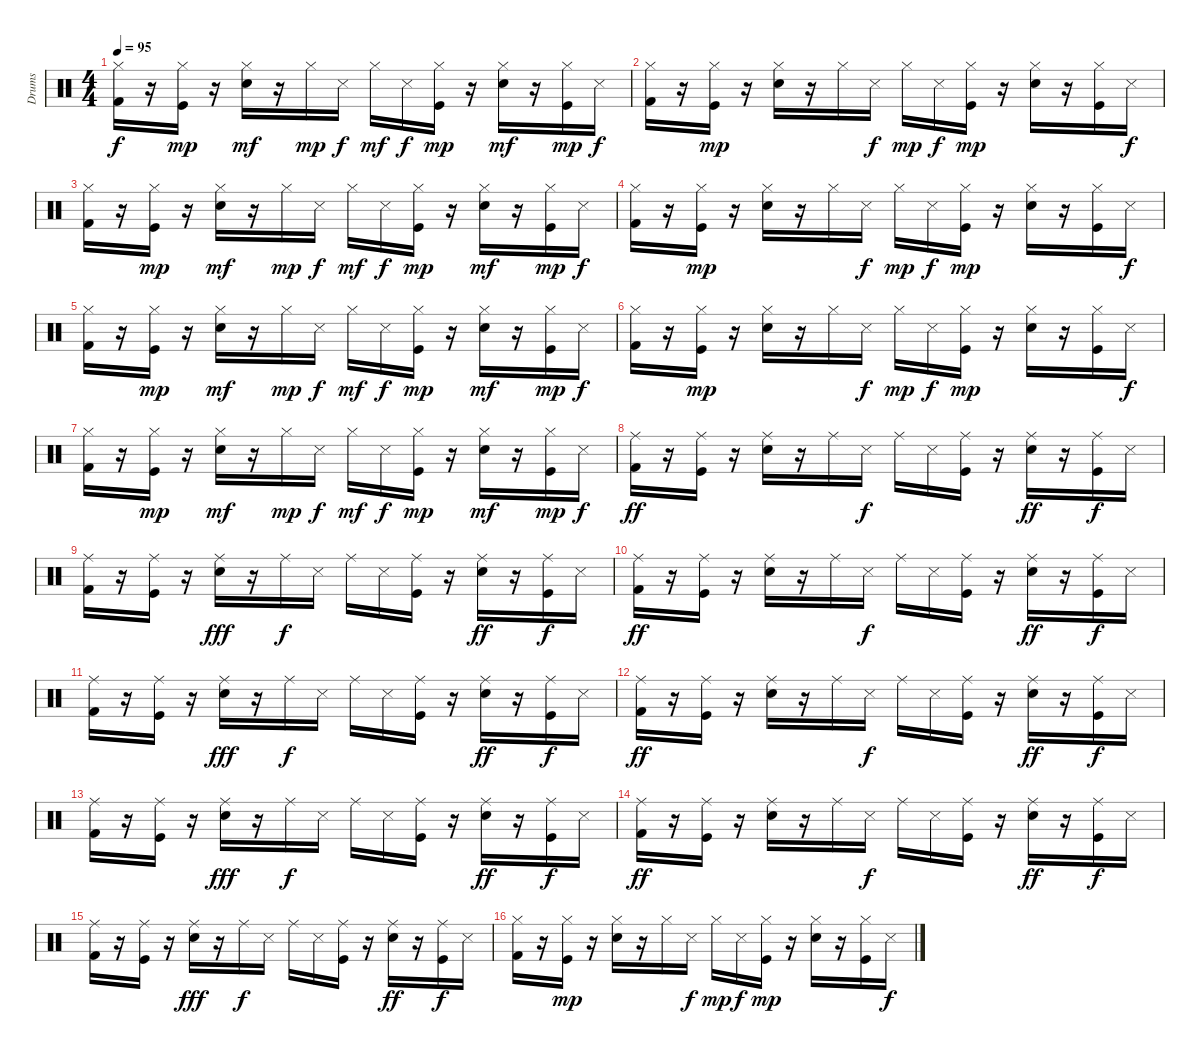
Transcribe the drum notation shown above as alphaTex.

\track ("Drums" "Drums") {instrument percussion}
\staff {score}
\articulation defaults
\ts (4 4)
\tempo 95
\clef neutral
\ks c
("Kick (hit) 2" "Hi-Hat (closed)").16{dy f} r.16 ("Kick (hit)" "Hi-Hat (closed)").16{dy mp} r.16 ("Snare (hit) 2" "Hi-Hat (closed)").16{dy mf} r.16 "Hi-Hat (closed)".16{dy mp} "Snare (side stick) 3".16{dy f} "Hi-Hat (closed)".16{dy mf} "Snare (side stick) 3".16{dy f} ("Kick (hit)" "Hi-Hat (closed)").16{dy mp} r.16 ("Snare (hit) 2" "Hi-Hat (closed)").16{dy mf} r.16 ("Kick (hit)" "Hi-Hat (closed)").16{dy mp} "Snare (side stick) 3".16{dy f} |
("Kick (hit) 2" "Hi-Hat (closed)").16 r.16 ("Kick (hit)" "Hi-Hat (closed)").16{dy mp} r.16 ("Snare (hit) 2" "Hi-Hat (closed)").16 r.16 "Hi-Hat (closed)".16 "Snare (side stick) 3".16{dy f} "Hi-Hat (closed)".16{dy mp} "Snare (side stick) 3".16{dy f} ("Kick (hit)" "Hi-Hat (closed)").16{dy mp} r.16 ("Snare (hit) 2" "Hi-Hat (closed)").16 r.16 ("Kick (hit)" "Hi-Hat (closed)").16 "Snare (side stick) 3".16{dy f} |
("Kick (hit) 2" "Hi-Hat (closed)").16 r.16 ("Kick (hit)" "Hi-Hat (closed)").16{dy mp} r.16 ("Snare (hit) 2" "Hi-Hat (closed)").16{dy mf} r.16 "Hi-Hat (closed)".16{dy mp} "Snare (side stick) 3".16{dy f} "Hi-Hat (closed)".16{dy mf} "Snare (side stick) 3".16{dy f} ("Kick (hit)" "Hi-Hat (closed)").16{dy mp} r.16 ("Snare (hit) 2" "Hi-Hat (closed)").16{dy mf} r.16 ("Kick (hit)" "Hi-Hat (closed)").16{dy mp} "Snare (side stick) 3".16{dy f} |
("Kick (hit) 2" "Hi-Hat (closed)").16 r.16 ("Kick (hit)" "Hi-Hat (closed)").16{dy mp} r.16 ("Snare (hit) 2" "Hi-Hat (closed)").16 r.16 "Hi-Hat (closed)".16 "Snare (side stick) 3".16{dy f} "Hi-Hat (closed)".16{dy mp} "Snare (side stick) 3".16{dy f} ("Kick (hit)" "Hi-Hat (closed)").16{dy mp} r.16 ("Snare (hit) 2" "Hi-Hat (closed)").16 r.16 ("Kick (hit)" "Hi-Hat (closed)").16 "Snare (side stick) 3".16{dy f} |
("Kick (hit) 2" "Hi-Hat (closed)").16 r.16 ("Kick (hit)" "Hi-Hat (closed)").16{dy mp} r.16 ("Snare (hit) 2" "Hi-Hat (closed)").16{dy mf} r.16 "Hi-Hat (closed)".16{dy mp} "Snare (side stick) 3".16{dy f} "Hi-Hat (closed)".16{dy mf} "Snare (side stick) 3".16{dy f} ("Kick (hit)" "Hi-Hat (closed)").16{dy mp} r.16 ("Snare (hit) 2" "Hi-Hat (closed)").16{dy mf} r.16 ("Kick (hit)" "Hi-Hat (closed)").16{dy mp} "Snare (side stick) 3".16{dy f} |
("Kick (hit) 2" "Hi-Hat (closed)").16 r.16 ("Kick (hit)" "Hi-Hat (closed)").16{dy mp} r.16 ("Snare (hit) 2" "Hi-Hat (closed)").16 r.16 "Hi-Hat (closed)".16 "Snare (side stick) 3".16{dy f} "Hi-Hat (closed)".16{dy mp} "Snare (side stick) 3".16{dy f} ("Kick (hit)" "Hi-Hat (closed)").16{dy mp} r.16 ("Snare (hit) 2" "Hi-Hat (closed)").16 r.16 ("Kick (hit)" "Hi-Hat (closed)").16 "Snare (side stick) 3".16{dy f} |
("Kick (hit) 2" "Hi-Hat (closed)").16 r.16 ("Kick (hit)" "Hi-Hat (closed)").16{dy mp} r.16 ("Snare (hit) 2" "Hi-Hat (closed)").16{dy mf} r.16 "Hi-Hat (closed)".16{dy mp} "Snare (side stick) 3".16{dy f} "Hi-Hat (closed)".16{dy mf} "Snare (side stick) 3".16{dy f} ("Kick (hit)" "Hi-Hat (closed)").16{dy mp} r.16 ("Snare (hit) 2" "Hi-Hat (closed)").16{dy mf} r.16 ("Kick (hit)" "Hi-Hat (closed)").16{dy mp} "Snare (side stick) 3".16{dy f} |
("Kick (hit) 2" "Ride (middle)").16{dy ff} r.16 ("Kick (hit)" "Ride (middle)").16 r.16 ("Snare (hit) 2" "Ride (middle)").16 r.16 "Ride (middle)".16 "Snare (side stick) 3".16{dy f} "Ride (middle)".16 "Snare (side stick) 3".16 ("Kick (hit)" "Ride (middle)").16 r.16 ("Snare (hit) 2" "Ride (middle)").16{dy ff} r.16 ("Kick (hit)" "Ride (middle)").16{dy f} "Snare (side stick) 3".16 |
("Kick (hit) 2" "Ride (middle)").16 r.16 ("Kick (hit)" "Ride (middle)").16 r.16 ("Snare (hit) 2" "Ride (middle)").16{dy fff} r.16 "Ride (middle)".16{dy f} "Snare (side stick) 3".16 "Ride (middle)".16 "Snare (side stick) 3".16 ("Kick (hit)" "Ride (middle)").16 r.16 ("Snare (hit) 2" "Ride (middle)").16{dy ff} r.16 ("Kick (hit)" "Ride (middle)").16{dy f} "Snare (side stick) 3".16 |
("Kick (hit) 2" "Ride (middle)").16{dy ff} r.16 ("Kick (hit)" "Ride (middle)").16 r.16 ("Snare (hit) 2" "Ride (middle)").16 r.16 "Ride (middle)".16 "Snare (side stick) 3".16{dy f} "Ride (middle)".16 "Snare (side stick) 3".16 ("Kick (hit)" "Ride (middle)").16 r.16 ("Snare (hit) 2" "Ride (middle)").16{dy ff} r.16 ("Kick (hit)" "Ride (middle)").16{dy f} "Snare (side stick) 3".16 |
("Kick (hit) 2" "Ride (middle)").16 r.16 ("Kick (hit)" "Ride (middle)").16 r.16 ("Snare (hit) 2" "Ride (middle)").16{dy fff} r.16 "Ride (middle)".16{dy f} "Snare (side stick) 3".16 "Ride (middle)".16 "Snare (side stick) 3".16 ("Kick (hit)" "Ride (middle)").16 r.16 ("Snare (hit) 2" "Ride (middle)").16{dy ff} r.16 ("Kick (hit)" "Ride (middle)").16{dy f} "Snare (side stick) 3".16 |
("Kick (hit) 2" "Ride (middle)").16{dy ff} r.16 ("Kick (hit)" "Ride (middle)").16 r.16 ("Snare (hit) 2" "Ride (middle)").16 r.16 "Ride (middle)".16 "Snare (side stick) 3".16{dy f} "Ride (middle)".16 "Snare (side stick) 3".16 ("Kick (hit)" "Ride (middle)").16 r.16 ("Snare (hit) 2" "Ride (middle)").16{dy ff} r.16 ("Kick (hit)" "Ride (middle)").16{dy f} "Snare (side stick) 3".16 |
("Kick (hit) 2" "Ride (middle)").16 r.16 ("Kick (hit)" "Ride (middle)").16 r.16 ("Snare (hit) 2" "Ride (middle)").16{dy fff} r.16 "Ride (middle)".16{dy f} "Snare (side stick) 3".16 "Ride (middle)".16 "Snare (side stick) 3".16 ("Kick (hit)" "Ride (middle)").16 r.16 ("Snare (hit) 2" "Ride (middle)").16{dy ff} r.16 ("Kick (hit)" "Ride (middle)").16{dy f} "Snare (side stick) 3".16 |
("Kick (hit) 2" "Ride (middle)").16{dy ff} r.16 ("Kick (hit)" "Ride (middle)").16 r.16 ("Snare (hit) 2" "Ride (middle)").16 r.16 "Ride (middle)".16 "Snare (side stick) 3".16{dy f} "Ride (middle)".16 "Snare (side stick) 3".16 ("Kick (hit)" "Ride (middle)").16 r.16 ("Snare (hit) 2" "Ride (middle)").16{dy ff} r.16 ("Kick (hit)" "Ride (middle)").16{dy f} "Snare (side stick) 3".16 |
("Kick (hit) 2" "Ride (middle)").16 r.16 ("Kick (hit)" "Ride (middle)").16 r.16 ("Snare (hit) 2" "Ride (middle)").16{dy fff} r.16 "Ride (middle)".16{dy f} "Snare (side stick) 3".16 "Ride (middle)".16 "Snare (side stick) 3".16 ("Kick (hit)" "Ride (middle)").16 r.16 ("Snare (hit) 2" "Ride (middle)").16{dy ff} r.16 ("Kick (hit)" "Ride (middle)").16{dy f} "Snare (side stick) 3".16 |
("Kick (hit) 2" "Hi-Hat (closed)").16 r.16 ("Kick (hit)" "Hi-Hat (closed)").16{dy mp} r.16 ("Snare (hit) 2" "Hi-Hat (closed)").16 r.16 "Hi-Hat (closed)".16 "Snare (side stick) 3".16{dy f} "Hi-Hat (closed)".16{dy mp} "Snare (side stick) 3".16{dy f} ("Kick (hit)" "Hi-Hat (closed)").16{dy mp} r.16 ("Snare (hit) 2" "Hi-Hat (closed)").16 r.16 ("Kick (hit)" "Hi-Hat (closed)").16 "Snare (side stick) 3".16{dy f}
